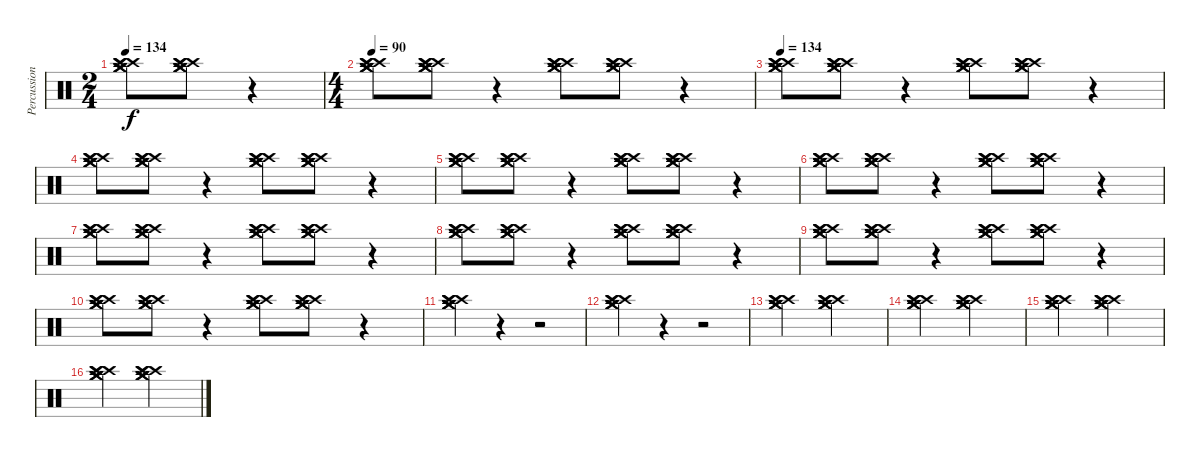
\track ("Percussion 2" "Percussion") {instrument percussion}
\staff {score}
\articulation defaults
\ts (2 4)
\tempo 134
\clef neutral
\ks c
("Crash medium (hit)" "Crash medium (hit)" "Crash medium (hit)" "Crash high (hit)" "Crash high (hit)" "Crash high (hit)").8{dy f} ("Crash medium (hit)" "Crash medium (hit)" "Crash medium (hit)" "Crash high (hit)" "Crash high (hit)" "Crash high (hit)").8 r.4 |
\ts (4 4)
\tempo 80
\tempo 90
("Crash medium (hit)" "Crash medium (hit)" "Crash medium (hit)" "Crash high (hit)" "Crash high (hit)" "Crash high (hit)").8 ("Crash medium (hit)" "Crash medium (hit)" "Crash medium (hit)" "Crash high (hit)" "Crash high (hit)" "Crash high (hit)").8 r.4 ("Crash medium (hit)" "Crash medium (hit)" "Crash medium (hit)" "Crash high (hit)" "Crash high (hit)" "Crash high (hit)").8 ("Crash medium (hit)" "Crash medium (hit)" "Crash medium (hit)" "Crash high (hit)" "Crash high (hit)" "Crash high (hit)").8 r.4 |
\tempo 134
("Crash medium (hit)" "Crash medium (hit)" "Crash medium (hit)" "Crash high (hit)" "Crash high (hit)" "Crash high (hit)").8 ("Crash medium (hit)" "Crash medium (hit)" "Crash medium (hit)" "Crash high (hit)" "Crash high (hit)" "Crash high (hit)").8 r.4 ("Crash medium (hit)" "Crash medium (hit)" "Crash medium (hit)" "Crash high (hit)" "Crash high (hit)" "Crash high (hit)").8 ("Crash medium (hit)" "Crash medium (hit)" "Crash medium (hit)" "Crash high (hit)" "Crash high (hit)" "Crash high (hit)").8 r.4 |
("Crash medium (hit)" "Crash medium (hit)" "Crash medium (hit)" "Crash high (hit)" "Crash high (hit)" "Crash high (hit)").8 ("Crash medium (hit)" "Crash medium (hit)" "Crash medium (hit)" "Crash high (hit)" "Crash high (hit)" "Crash high (hit)").8 r.4 ("Crash medium (hit)" "Crash medium (hit)" "Crash medium (hit)" "Crash high (hit)" "Crash high (hit)" "Crash high (hit)").8 ("Crash medium (hit)" "Crash medium (hit)" "Crash medium (hit)" "Crash high (hit)" "Crash high (hit)" "Crash high (hit)").8 r.4 |
("Crash medium (hit)" "Crash medium (hit)" "Crash medium (hit)" "Crash high (hit)" "Crash high (hit)" "Crash high (hit)").8 ("Crash medium (hit)" "Crash medium (hit)" "Crash medium (hit)" "Crash high (hit)" "Crash high (hit)" "Crash high (hit)").8 r.4 ("Crash medium (hit)" "Crash medium (hit)" "Crash medium (hit)" "Crash high (hit)" "Crash high (hit)" "Crash high (hit)").8 ("Crash medium (hit)" "Crash medium (hit)" "Crash medium (hit)" "Crash high (hit)" "Crash high (hit)" "Crash high (hit)").8 r.4 |
("Crash medium (hit)" "Crash medium (hit)" "Crash medium (hit)" "Crash high (hit)" "Crash high (hit)" "Crash high (hit)").8 ("Crash medium (hit)" "Crash medium (hit)" "Crash medium (hit)" "Crash high (hit)" "Crash high (hit)" "Crash high (hit)").8 r.4 ("Crash medium (hit)" "Crash medium (hit)" "Crash medium (hit)" "Crash high (hit)" "Crash high (hit)" "Crash high (hit)").8 ("Crash medium (hit)" "Crash medium (hit)" "Crash medium (hit)" "Crash high (hit)" "Crash high (hit)" "Crash high (hit)").8 r.4 |
("Crash medium (hit)" "Crash medium (hit)" "Crash medium (hit)" "Crash high (hit)" "Crash high (hit)" "Crash high (hit)").8 ("Crash medium (hit)" "Crash medium (hit)" "Crash medium (hit)" "Crash high (hit)" "Crash high (hit)" "Crash high (hit)").8 r.4 ("Crash medium (hit)" "Crash medium (hit)" "Crash medium (hit)" "Crash high (hit)" "Crash high (hit)" "Crash high (hit)").8 ("Crash medium (hit)" "Crash medium (hit)" "Crash medium (hit)" "Crash high (hit)" "Crash high (hit)" "Crash high (hit)").8 r.4 |
("Crash medium (hit)" "Crash medium (hit)" "Crash medium (hit)" "Crash high (hit)" "Crash high (hit)" "Crash high (hit)").8 ("Crash medium (hit)" "Crash medium (hit)" "Crash medium (hit)" "Crash high (hit)" "Crash high (hit)" "Crash high (hit)").8 r.4 ("Crash medium (hit)" "Crash medium (hit)" "Crash medium (hit)" "Crash high (hit)" "Crash high (hit)" "Crash high (hit)").8 ("Crash medium (hit)" "Crash medium (hit)" "Crash medium (hit)" "Crash high (hit)" "Crash high (hit)" "Crash high (hit)").8 r.4 |
("Crash medium (hit)" "Crash medium (hit)" "Crash medium (hit)" "Crash high (hit)" "Crash high (hit)" "Crash high (hit)").8 ("Crash medium (hit)" "Crash medium (hit)" "Crash medium (hit)" "Crash high (hit)" "Crash high (hit)" "Crash high (hit)").8 r.4 ("Crash medium (hit)" "Crash medium (hit)" "Crash medium (hit)" "Crash high (hit)" "Crash high (hit)" "Crash high (hit)").8 ("Crash medium (hit)" "Crash medium (hit)" "Crash medium (hit)" "Crash high (hit)" "Crash high (hit)" "Crash high (hit)").8 r.4 |
("Crash medium (hit)" "Crash medium (hit)" "Crash medium (hit)" "Crash high (hit)" "Crash high (hit)" "Crash high (hit)").8 ("Crash medium (hit)" "Crash medium (hit)" "Crash medium (hit)" "Crash high (hit)" "Crash high (hit)" "Crash high (hit)").8 r.4 ("Crash medium (hit)" "Crash medium (hit)" "Crash medium (hit)" "Crash high (hit)" "Crash high (hit)" "Crash high (hit)").8 ("Crash medium (hit)" "Crash medium (hit)" "Crash medium (hit)" "Crash high (hit)" "Crash high (hit)" "Crash high (hit)").8 r.4 |
("Crash medium (hit)" "Crash medium (hit)" "Crash medium (hit)" "Crash high (hit)" "Crash high (hit)" "Crash high (hit)").4 r.4 r.2 |
("Crash medium (hit)" "Crash medium (hit)" "Crash medium (hit)" "Crash high (hit)" "Crash high (hit)" "Crash high (hit)").4 r.4 r.2 |
("Crash medium (hit)" "Crash medium (hit)" "Crash medium (hit)" "Crash high (hit)" "Crash high (hit)" "Crash high (hit)").2 ("Crash medium (hit)" "Crash medium (hit)" "Crash medium (hit)" "Crash high (hit)" "Crash high (hit)" "Crash high (hit)").2 |
("Crash medium (hit)" "Crash medium (hit)" "Crash medium (hit)" "Crash high (hit)" "Crash high (hit)" "Crash high (hit)").2 ("Crash medium (hit)" "Crash medium (hit)" "Crash medium (hit)" "Crash high (hit)" "Crash high (hit)" "Crash high (hit)").2 |
("Crash medium (hit)" "Crash medium (hit)" "Crash medium (hit)" "Crash high (hit)" "Crash high (hit)" "Crash high (hit)").2 ("Crash medium (hit)" "Crash medium (hit)" "Crash medium (hit)" "Crash high (hit)" "Crash high (hit)" "Crash high (hit)").2 |
("Crash medium (hit)" "Crash medium (hit)" "Crash medium (hit)" "Crash high (hit)" "Crash high (hit)" "Crash high (hit)").2 ("Crash medium (hit)" "Crash medium (hit)" "Crash medium (hit)" "Crash high (hit)" "Crash high (hit)" "Crash high (hit)").2
